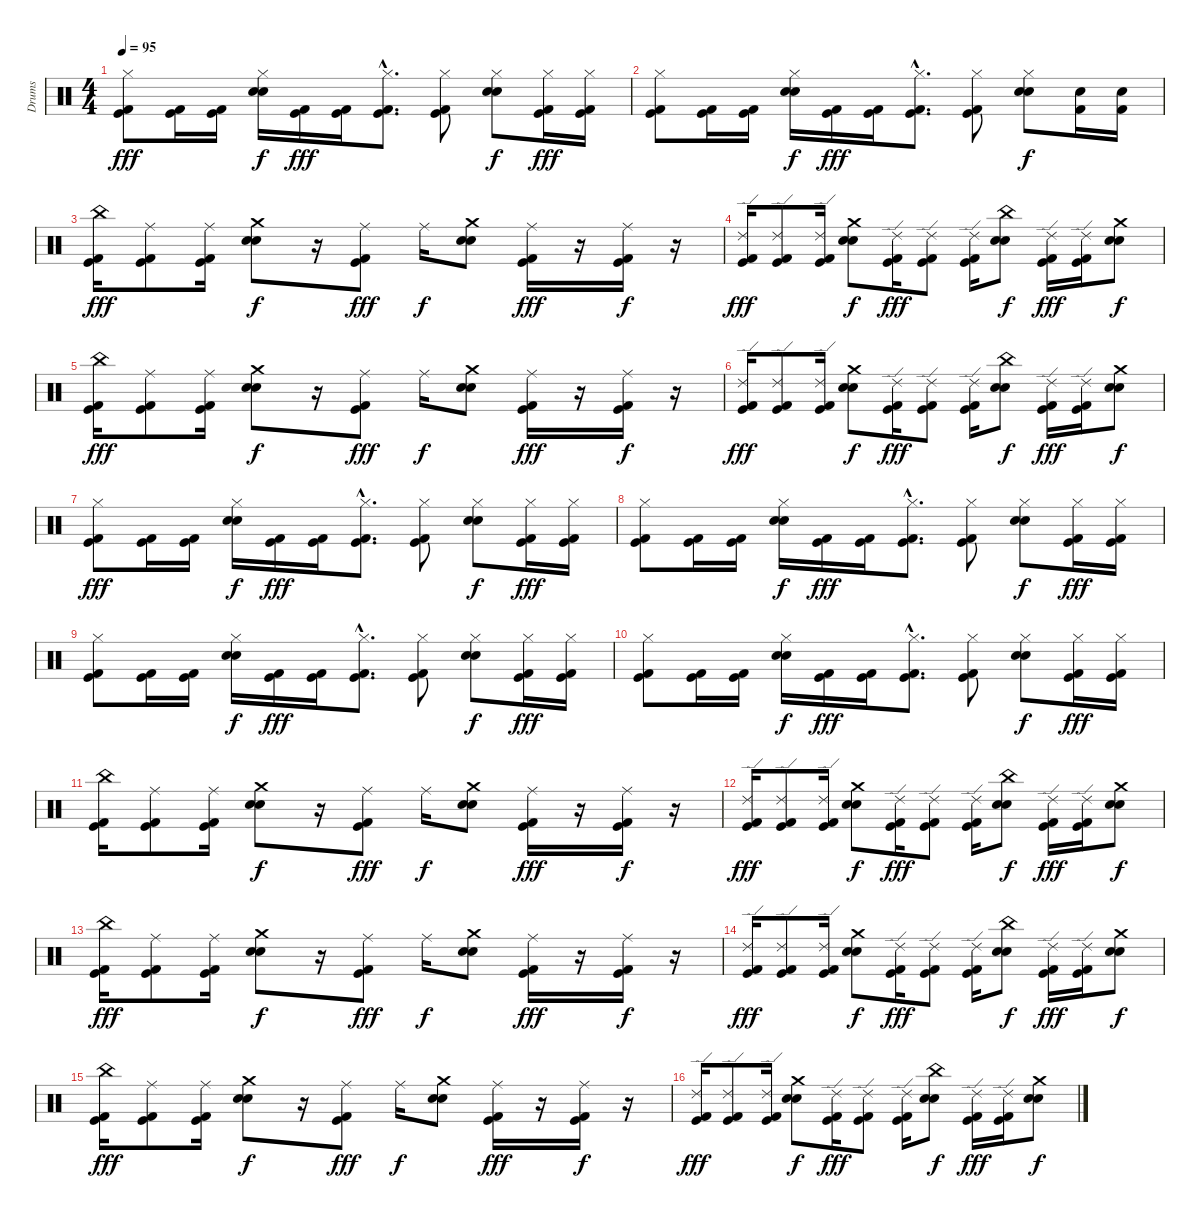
\track ("Drums" "Drums") {instrument percussion}
\staff {score}
\articulation defaults
\ts (4 4)
\tempo 95
\clef neutral
\ks c
("Hi-Hat (closed)" "Kick (hit)" "Kick (hit) 2").8{dy fff} ("Kick (hit)" "Kick (hit) 2").16 ("Kick (hit)" "Kick (hit) 2").16 ("Hi-Hat (closed)" "Snare (hit) 2" "Snare (hit) 2").16{dy f} ("Kick (hit)" "Kick (hit) 2").16{dy fff} ("Kick (hit)" "Kick (hit) 2").16 ("Hi-Hat (closed)"{hac} "Kick (hit)"{hac} "Kick (hit) 2"{hac}).8{d} ("Hi-Hat (closed)" "Kick (hit)" "Kick (hit) 2").8 ("Hi-Hat (closed)" "Snare (hit) 2" "Snare (hit) 2").8{dy f} ("Hi-Hat (closed)" "Kick (hit)" "Kick (hit) 2").16{dy fff} ("Hi-Hat (closed)" "Kick (hit)" "Kick (hit) 2").16 |
("Hi-Hat (closed)" "Kick (hit)" "Kick (hit) 2").8 ("Kick (hit)" "Kick (hit) 2").16 ("Kick (hit)" "Kick (hit) 2").16 ("Hi-Hat (closed)" "Snare (hit) 2" "Snare (hit) 2").16{dy f} ("Kick (hit)" "Kick (hit) 2").16{dy fff} ("Kick (hit)" "Kick (hit) 2").16 ("Hi-Hat (closed)"{hac} "Kick (hit)"{hac} "Kick (hit) 2"{hac}).8{d} ("Hi-Hat (closed)" "Kick (hit)" "Kick (hit) 2").8 ("Hi-Hat (closed)" "Snare (hit) 2" "Snare (hit) 2").8{dy f} ("Snare (hit) 2" "Kick (hit) 2").16 ("Snare (hit) 2" "Kick (hit) 2").16 |
("China (hit)" "Kick (hit)" "Kick (hit) 2").16{dy fff} ("Ride (middle)" "Kick (hit)" "Kick (hit) 2").8 ("Ride (middle)" "Kick (hit)" "Kick (hit) 2").16 ("Crash medium (hit)" "Snare (hit) 2" "Snare (hit) 2").8{dy f} r.16 ("Ride (middle)" "Kick (hit)" "Kick (hit) 2").8{dy fff} "Ride (middle)".16{dy f} ("Crash medium (hit)" "Snare (hit) 2" "Snare (hit) 2").8 ("Ride (middle)" "Kick (hit)" "Kick (hit) 2").16{dy fff} r.16 ("Ride (middle)" "Kick (hit)" "Kick (hit) 2").16{dy f} r.16 |
("Ride (edge) 2" "Kick (hit)" "Kick (hit) 2").16{dy fff} ("Ride (edge) 2" "Kick (hit)" "Kick (hit) 2").8 ("Ride (edge) 2" "Kick (hit)" "Kick (hit) 2").16 ("Crash medium (hit)" "Snare (hit) 2" "Snare (hit) 2").8{dy f} ("Ride (edge) 2" "Kick (hit)" "Kick (hit) 2").16{dy fff} ("Ride (edge) 2" "Kick (hit)" "Kick (hit) 2").8 ("Ride (edge) 2" "Kick (hit)" "Kick (hit) 2").16 ("China (hit)" "Snare (hit) 2" "Snare (hit) 2").8{dy f} ("Ride (edge) 2" "Kick (hit)" "Kick (hit) 2").16{dy fff} ("Ride (edge) 2" "Kick (hit)" "Kick (hit) 2").16 ("Crash medium (hit)" "Snare (hit) 2" "Snare (hit) 2").8{dy f} |
("China (hit)" "Kick (hit)" "Kick (hit) 2").16{dy fff} ("Ride (middle)" "Kick (hit)" "Kick (hit) 2").8 ("Ride (middle)" "Kick (hit)" "Kick (hit) 2").16 ("Crash medium (hit)" "Snare (hit) 2" "Snare (hit) 2").8{dy f} r.16 ("Ride (middle)" "Kick (hit)" "Kick (hit) 2").8{dy fff} "Ride (middle)".16{dy f} ("Crash medium (hit)" "Snare (hit) 2" "Snare (hit) 2").8 ("Ride (middle)" "Kick (hit)" "Kick (hit) 2").16{dy fff} r.16 ("Ride (middle)" "Kick (hit)" "Kick (hit) 2").16{dy f} r.16 |
("Ride (edge) 2" "Kick (hit)" "Kick (hit) 2").16{dy fff} ("Ride (edge) 2" "Kick (hit)" "Kick (hit) 2").8 ("Ride (edge) 2" "Kick (hit)" "Kick (hit) 2").16 ("Crash medium (hit)" "Snare (hit) 2" "Snare (hit) 2").8{dy f} ("Ride (edge) 2" "Kick (hit)" "Kick (hit) 2").16{dy fff} ("Ride (edge) 2" "Kick (hit)" "Kick (hit) 2").8 ("Ride (edge) 2" "Kick (hit)" "Kick (hit) 2").16 ("China (hit)" "Snare (hit) 2" "Snare (hit) 2").8{dy f} ("Ride (edge) 2" "Kick (hit)" "Kick (hit) 2").16{dy fff} ("Ride (edge) 2" "Kick (hit)" "Kick (hit) 2").16 ("Crash medium (hit)" "Snare (hit) 2" "Snare (hit) 2").8{dy f} |
("Hi-Hat (closed)" "Kick (hit)" "Kick (hit) 2").8{dy fff} ("Kick (hit)" "Kick (hit) 2").16 ("Kick (hit)" "Kick (hit) 2").16 ("Hi-Hat (closed)" "Snare (hit) 2" "Snare (hit) 2").16{dy f} ("Kick (hit)" "Kick (hit) 2").16{dy fff} ("Kick (hit)" "Kick (hit) 2").16 ("Hi-Hat (closed)"{hac} "Kick (hit)"{hac} "Kick (hit) 2"{hac}).8{d} ("Hi-Hat (closed)" "Kick (hit)" "Kick (hit) 2").8 ("Hi-Hat (closed)" "Snare (hit) 2" "Snare (hit) 2").8{dy f} ("Hi-Hat (closed)" "Kick (hit)" "Kick (hit) 2").16{dy fff} ("Hi-Hat (closed)" "Kick (hit)" "Kick (hit) 2").16 |
("Hi-Hat (closed)" "Kick (hit)" "Kick (hit) 2").8 ("Kick (hit)" "Kick (hit) 2").16 ("Kick (hit)" "Kick (hit) 2").16 ("Hi-Hat (closed)" "Snare (hit) 2" "Snare (hit) 2").16{dy f} ("Kick (hit)" "Kick (hit) 2").16{dy fff} ("Kick (hit)" "Kick (hit) 2").16 ("Hi-Hat (closed)"{hac} "Kick (hit)"{hac} "Kick (hit) 2"{hac}).8{d} ("Hi-Hat (closed)" "Kick (hit)" "Kick (hit) 2").8 ("Hi-Hat (closed)" "Snare (hit) 2" "Snare (hit) 2").8{dy f} ("Hi-Hat (closed)" "Kick (hit)" "Kick (hit) 2").16{dy fff} ("Hi-Hat (closed)" "Kick (hit)" "Kick (hit) 2").16 |
("Hi-Hat (closed)" "Kick (hit)" "Kick (hit) 2").8 ("Kick (hit)" "Kick (hit) 2").16 ("Kick (hit)" "Kick (hit) 2").16 ("Hi-Hat (closed)" "Snare (hit) 2" "Snare (hit) 2").16{dy f} ("Kick (hit)" "Kick (hit) 2").16{dy fff} ("Kick (hit)" "Kick (hit) 2").16 ("Hi-Hat (closed)"{hac} "Kick (hit)"{hac} "Kick (hit) 2"{hac}).8{d} ("Hi-Hat (closed)" "Kick (hit)" "Kick (hit) 2").8 ("Hi-Hat (closed)" "Snare (hit) 2" "Snare (hit) 2").8{dy f} ("Hi-Hat (closed)" "Kick (hit)" "Kick (hit) 2").16{dy fff} ("Hi-Hat (closed)" "Kick (hit)" "Kick (hit) 2").16 |
("Hi-Hat (closed)" "Kick (hit)" "Kick (hit) 2").8 ("Kick (hit)" "Kick (hit) 2").16 ("Kick (hit)" "Kick (hit) 2").16 ("Hi-Hat (closed)" "Snare (hit) 2" "Snare (hit) 2").16{dy f} ("Kick (hit)" "Kick (hit) 2").16{dy fff} ("Kick (hit)" "Kick (hit) 2").16 ("Hi-Hat (closed)"{hac} "Kick (hit)"{hac} "Kick (hit) 2"{hac}).8{d} ("Hi-Hat (closed)" "Kick (hit)" "Kick (hit) 2").8 ("Hi-Hat (closed)" "Snare (hit) 2" "Snare (hit) 2").8{dy f} ("Hi-Hat (closed)" "Kick (hit)" "Kick (hit) 2").16{dy fff} ("Hi-Hat (closed)" "Kick (hit)" "Kick (hit) 2").16 |
("China (hit)" "Kick (hit)" "Kick (hit) 2").16 ("Ride (middle)" "Kick (hit)" "Kick (hit) 2").8 ("Ride (middle)" "Kick (hit)" "Kick (hit) 2").16 ("Crash medium (hit)" "Snare (hit) 2" "Snare (hit) 2").8{dy f} r.16 ("Ride (middle)" "Kick (hit)" "Kick (hit) 2").8{dy fff} "Ride (middle)".16{dy f} ("Crash medium (hit)" "Snare (hit) 2" "Snare (hit) 2").8 ("Ride (middle)" "Kick (hit)" "Kick (hit) 2").16{dy fff} r.16 ("Ride (middle)" "Kick (hit)" "Kick (hit) 2").16{dy f} r.16 |
("Ride (edge) 2" "Kick (hit)" "Kick (hit) 2").16{dy fff} ("Ride (edge) 2" "Kick (hit)" "Kick (hit) 2").8 ("Ride (edge) 2" "Kick (hit)" "Kick (hit) 2").16 ("Crash medium (hit)" "Snare (hit) 2" "Snare (hit) 2").8{dy f} ("Ride (edge) 2" "Kick (hit)" "Kick (hit) 2").16{dy fff} ("Ride (edge) 2" "Kick (hit)" "Kick (hit) 2").8 ("Ride (edge) 2" "Kick (hit)" "Kick (hit) 2").16 ("China (hit)" "Snare (hit) 2" "Snare (hit) 2").8{dy f} ("Ride (edge) 2" "Kick (hit)" "Kick (hit) 2").16{dy fff} ("Ride (edge) 2" "Kick (hit)" "Kick (hit) 2").16 ("Crash medium (hit)" "Snare (hit) 2" "Snare (hit) 2").8{dy f} |
("China (hit)" "Kick (hit)" "Kick (hit) 2").16{dy fff} ("Ride (middle)" "Kick (hit)" "Kick (hit) 2").8 ("Ride (middle)" "Kick (hit)" "Kick (hit) 2").16 ("Crash medium (hit)" "Snare (hit) 2" "Snare (hit) 2").8{dy f} r.16 ("Ride (middle)" "Kick (hit)" "Kick (hit) 2").8{dy fff} "Ride (middle)".16{dy f} ("Crash medium (hit)" "Snare (hit) 2" "Snare (hit) 2").8 ("Ride (middle)" "Kick (hit)" "Kick (hit) 2").16{dy fff} r.16 ("Ride (middle)" "Kick (hit)" "Kick (hit) 2").16{dy f} r.16 |
("Ride (edge) 2" "Kick (hit)" "Kick (hit) 2").16{dy fff} ("Ride (edge) 2" "Kick (hit)" "Kick (hit) 2").8 ("Ride (edge) 2" "Kick (hit)" "Kick (hit) 2").16 ("Crash medium (hit)" "Snare (hit) 2" "Snare (hit) 2").8{dy f} ("Ride (edge) 2" "Kick (hit)" "Kick (hit) 2").16{dy fff} ("Ride (edge) 2" "Kick (hit)" "Kick (hit) 2").8 ("Ride (edge) 2" "Kick (hit)" "Kick (hit) 2").16 ("China (hit)" "Snare (hit) 2" "Snare (hit) 2").8{dy f} ("Ride (edge) 2" "Kick (hit)" "Kick (hit) 2").16{dy fff} ("Ride (edge) 2" "Kick (hit)" "Kick (hit) 2").16 ("Crash medium (hit)" "Snare (hit) 2" "Snare (hit) 2").8{dy f} |
("China (hit)" "Kick (hit)" "Kick (hit) 2").16{dy fff} ("Ride (middle)" "Kick (hit)" "Kick (hit) 2").8 ("Ride (middle)" "Kick (hit)" "Kick (hit) 2").16 ("Crash medium (hit)" "Snare (hit) 2" "Snare (hit) 2").8{dy f} r.16 ("Ride (middle)" "Kick (hit)" "Kick (hit) 2").8{dy fff} "Ride (middle)".16{dy f} ("Crash medium (hit)" "Snare (hit) 2" "Snare (hit) 2").8 ("Ride (middle)" "Kick (hit)" "Kick (hit) 2").16{dy fff} r.16 ("Ride (middle)" "Kick (hit)" "Kick (hit) 2").16{dy f} r.16 |
("Ride (edge) 2" "Kick (hit)" "Kick (hit) 2").16{dy fff} ("Ride (edge) 2" "Kick (hit)" "Kick (hit) 2").8 ("Ride (edge) 2" "Kick (hit)" "Kick (hit) 2").16 ("Crash medium (hit)" "Snare (hit) 2" "Snare (hit) 2").8{dy f} ("Ride (edge) 2" "Kick (hit)" "Kick (hit) 2").16{dy fff} ("Ride (edge) 2" "Kick (hit)" "Kick (hit) 2").8 ("Ride (edge) 2" "Kick (hit)" "Kick (hit) 2").16 ("China (hit)" "Snare (hit) 2" "Snare (hit) 2").8{dy f} ("Ride (edge) 2" "Kick (hit)" "Kick (hit) 2").16{dy fff} ("Ride (edge) 2" "Kick (hit)" "Kick (hit) 2").16 ("Crash medium (hit)" "Snare (hit) 2" "Snare (hit) 2").8{dy f}
